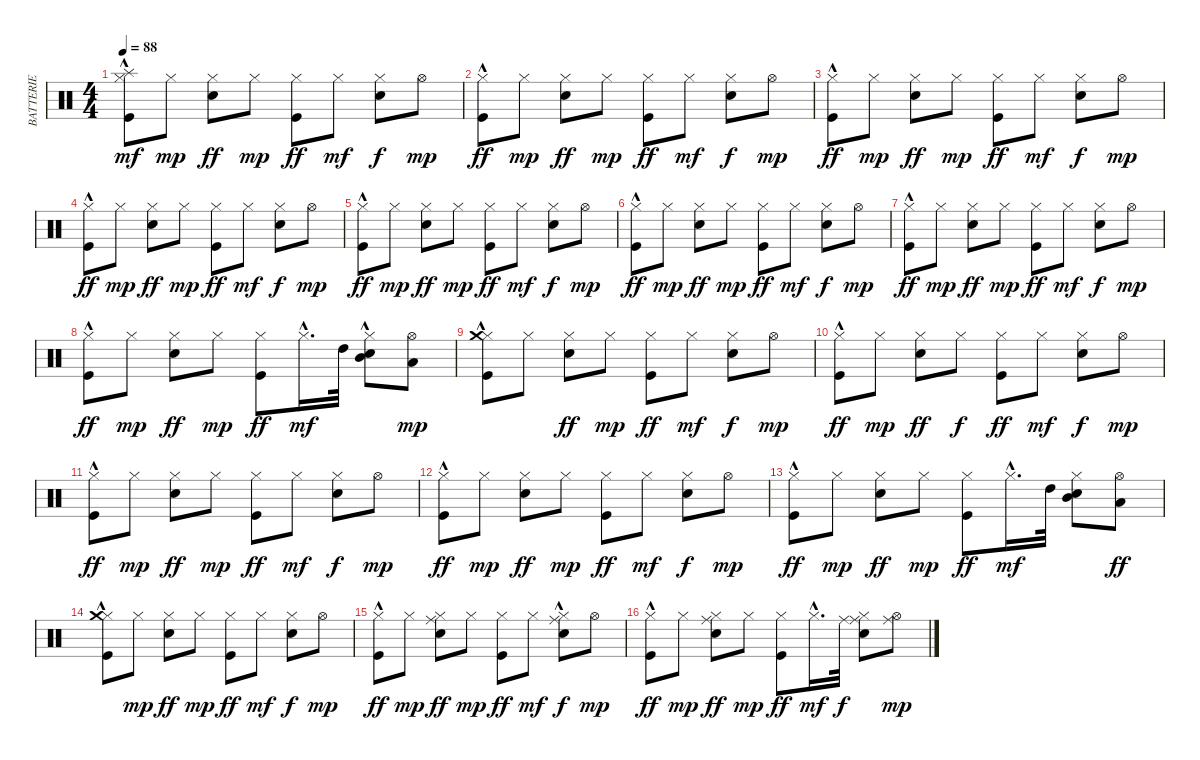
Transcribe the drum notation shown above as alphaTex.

\track ("BATTERIE" "BATTERIE") {instrument percussion}
\staff {score}
\articulation defaults
\ts (4 4)
\tempo 88
\clef neutral
\ks c
("Kick (hit)"{hac} "Hi-Hat (closed)" "Splash (hit)").8{dy mf} "Hi-Hat (closed)".8{dy mp} ("Electric Snare (hit)" "Hi-Hat (closed)").8{dy ff} "Hi-Hat (closed)".8{dy mp} ("Kick (hit)" "Hi-Hat (closed)").8{dy ff} "Hi-Hat (closed)".8{dy mf} ("Electric Snare (hit)" "Hi-Hat (closed)").8{dy f} "Hi-Hat (open)".8{dy mp} |
("Kick (hit)"{hac} "Hi-Hat (closed)").8{dy ff} "Hi-Hat (closed)".8{dy mp} ("Electric Snare (hit)" "Hi-Hat (closed)").8{dy ff} "Hi-Hat (closed)".8{dy mp} ("Kick (hit)" "Hi-Hat (closed)").8{dy ff} "Hi-Hat (closed)".8{dy mf} ("Electric Snare (hit)" "Hi-Hat (closed)").8{dy f} "Hi-Hat (open)".8{dy mp} |
("Kick (hit)"{hac} "Hi-Hat (closed)").8{dy ff} "Hi-Hat (closed)".8{dy mp} ("Electric Snare (hit)" "Hi-Hat (closed)").8{dy ff} "Hi-Hat (closed)".8{dy mp} ("Kick (hit)" "Hi-Hat (closed)").8{dy ff} "Hi-Hat (closed)".8{dy mf} ("Electric Snare (hit)" "Hi-Hat (closed)").8{dy f} "Hi-Hat (open)".8{dy mp} |
("Kick (hit)"{hac} "Hi-Hat (closed)").8{dy ff} "Hi-Hat (closed)".8{dy mp} ("Electric Snare (hit)" "Hi-Hat (closed)").8{dy ff} "Hi-Hat (closed)".8{dy mp} ("Kick (hit)" "Hi-Hat (closed)").8{dy ff} "Hi-Hat (closed)".8{dy mf} ("Electric Snare (hit)" "Hi-Hat (closed)").8{dy f} "Hi-Hat (open)".8{dy mp} |
("Kick (hit)"{hac} "Hi-Hat (closed)").8{dy ff} "Hi-Hat (closed)".8{dy mp} ("Electric Snare (hit)" "Hi-Hat (closed)").8{dy ff} "Hi-Hat (closed)".8{dy mp} ("Kick (hit)" "Hi-Hat (closed)").8{dy ff} "Hi-Hat (closed)".8{dy mf} ("Electric Snare (hit)" "Hi-Hat (closed)").8{dy f} "Hi-Hat (open)".8{dy mp} |
("Kick (hit)"{hac} "Hi-Hat (closed)").8{dy ff} "Hi-Hat (closed)".8{dy mp} ("Electric Snare (hit)" "Hi-Hat (closed)").8{dy ff} "Hi-Hat (closed)".8{dy mp} ("Kick (hit)" "Hi-Hat (closed)").8{dy ff} "Hi-Hat (closed)".8{dy mf} ("Electric Snare (hit)" "Hi-Hat (closed)").8{dy f} "Hi-Hat (open)".8{dy mp} |
("Kick (hit)"{hac} "Hi-Hat (closed)").8{dy ff} "Hi-Hat (closed)".8{dy mp} ("Electric Snare (hit)" "Hi-Hat (closed)").8{dy ff} "Hi-Hat (closed)".8{dy mp} ("Kick (hit)" "Hi-Hat (closed)").8{dy ff} "Hi-Hat (closed)".8{dy mf} ("Electric Snare (hit)" "Hi-Hat (closed)").8{dy f} "Hi-Hat (open)".8{dy mp} |
("Kick (hit)"{hac} "Hi-Hat (closed)").8{dy ff} "Hi-Hat (closed)".8{dy mp} ("Electric Snare (hit)" "Hi-Hat (closed)").8{dy ff} "Hi-Hat (closed)".8{dy mp} ("Kick (hit)" "Hi-Hat (closed)").8{dy ff} "Hi-Hat (closed)"{hac}.16{d dy mf} "High Tom (hit)".32 ("Electric Snare (hit)" "Hi-Hat (closed)" "Mid Tom (hit)"{hac}).8 ("Hi-Hat (open)" "Low Tom (hit)").8{dy mp} |
("Kick (hit)"{hac} "Hi-Hat (closed)" "Crash medium (hit)").8 "Hi-Hat (closed)".8 ("Electric Snare (hit)" "Hi-Hat (closed)").8{dy ff} "Hi-Hat (closed)".8{dy mp} ("Kick (hit)" "Hi-Hat (closed)").8{dy ff} "Hi-Hat (closed)".8{dy mf} ("Electric Snare (hit)" "Hi-Hat (closed)").8{dy f} "Hi-Hat (open)".8{dy mp} |
("Kick (hit)"{hac} "Hi-Hat (closed)").8{dy ff} "Hi-Hat (closed)".8{dy mp} ("Electric Snare (hit)" "Hi-Hat (closed)").8{dy ff} "Hi-Hat (closed)".8{dy f} ("Kick (hit)" "Hi-Hat (closed)").8{dy ff} "Hi-Hat (closed)".8{dy mf} ("Electric Snare (hit)" "Hi-Hat (closed)").8{dy f} "Hi-Hat (open)".8{dy mp} |
("Kick (hit)"{hac} "Hi-Hat (closed)").8{dy ff} "Hi-Hat (closed)".8{dy mp} ("Electric Snare (hit)" "Hi-Hat (closed)").8{dy ff} "Hi-Hat (closed)".8{dy mp} ("Kick (hit)" "Hi-Hat (closed)").8{dy ff} "Hi-Hat (closed)".8{dy mf} ("Electric Snare (hit)" "Hi-Hat (closed)").8{dy f} "Hi-Hat (open)".8{dy mp} |
("Kick (hit)"{hac} "Hi-Hat (closed)").8{dy ff} "Hi-Hat (closed)".8{dy mp} ("Electric Snare (hit)" "Hi-Hat (closed)").8{dy ff} "Hi-Hat (closed)".8{dy mp} ("Kick (hit)" "Hi-Hat (closed)").8{dy ff} "Hi-Hat (closed)".8{dy mf} ("Electric Snare (hit)" "Hi-Hat (closed)").8{dy f} "Hi-Hat (open)".8{dy mp} |
("Kick (hit)"{hac} "Hi-Hat (closed)").8{dy ff} "Hi-Hat (closed)".8{dy mp} ("Electric Snare (hit)" "Hi-Hat (closed)").8{dy ff} "Hi-Hat (closed)".8{dy mp} ("Kick (hit)" "Hi-Hat (closed)").8{dy ff} "Hi-Hat (closed)"{hac}.16{d dy mf} "High Tom (hit)".32 ("Electric Snare (hit)" "Hi-Hat (closed)" "Mid Tom (hit)").8 ("Hi-Hat (open)" "Low Tom (hit)").8{dy ff} |
("Kick (hit)"{hac} "Hi-Hat (closed)" "Crash medium (hit)"{hac}).8 "Hi-Hat (closed)".8{dy mp} ("Electric Snare (hit)" "Hi-Hat (closed)").8{dy ff} "Hi-Hat (closed)".8{dy mp} ("Kick (hit)" "Hi-Hat (closed)").8{dy ff} "Hi-Hat (closed)".8{dy mf} ("Electric Snare (hit)" "Hi-Hat (closed)").8{dy f} "Hi-Hat (open)".8{dy mp} |
("Kick (hit)"{hac} "Hi-Hat (closed)").8{dy ff} "Hi-Hat (closed)".8{dy mp} ("Electric Snare (hit)" "Hi-Hat (closed)" "Ride (middle)").8{dy ff} "Hi-Hat (closed)".8{dy mp} ("Kick (hit)" "Hi-Hat (closed)").8{dy ff} "Hi-Hat (closed)".8{dy mf} ("Electric Snare (hit)" "Hi-Hat (closed)" "Ride (middle)"{hac}).8{dy f} "Hi-Hat (open)".8{dy mp} |
("Kick (hit)"{hac} "Hi-Hat (closed)").8{dy ff} "Hi-Hat (closed)".8{dy mp} ("Electric Snare (hit)" "Hi-Hat (closed)" "Ride (middle)").8{dy ff} "Hi-Hat (closed)".8{dy mp} ("Kick (hit)" "Hi-Hat (closed)").8{dy ff} "Hi-Hat (closed)"{hac}.16{d dy mf} "Ride (middle)".32{dy f} ("Electric Snare (hit)" "Hi-Hat (closed)" "Ride (middle)").8 ("Hi-Hat (open)" "Ride (middle)").8{dy mp}
